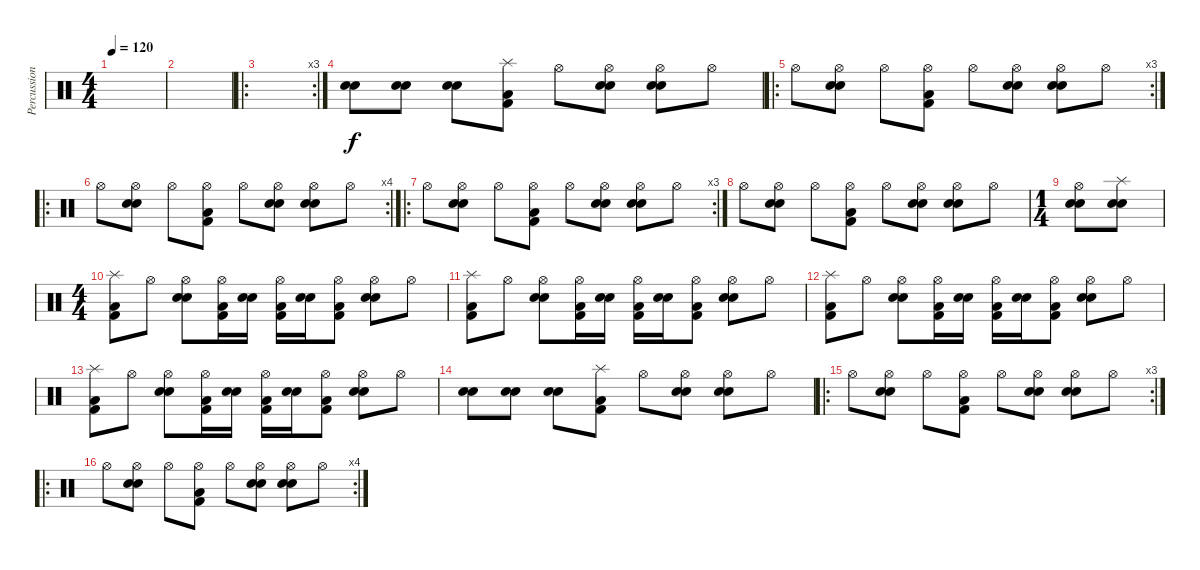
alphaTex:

\track ("Percussions" "Percussion") {instrument percussion}
\staff {score}
\articulation defaults
\ts (4 4)
\tempo 120
\clef neutral
\ks c
|
|
\ro
\rc 3
|
("Snare (hit) 2" "Electric Snare (hit)").8 ("Snare (hit) 2" "Electric Snare (hit)").8 ("Snare (hit) 2" "Electric Snare (hit)").8 ("Splash (hit)" "Kick (hit) 2" "Low Floor Tom (hit)").8 "Hi-Hat (open)".8 ("Hi-Hat (open)" "Snare (hit) 2" "Electric Snare (hit)").8 ("Hi-Hat (open)" "Snare (hit) 2" "Electric Snare (hit)").8 "Hi-Hat (open)".8 |
\ro
\rc 3 "Hi-Hat (open)".8
("Hi-Hat (open)" "Snare (hit) 2" "Electric Snare (hit)").8 "Hi-Hat (open)".8 ("Hi-Hat (open)" "Kick (hit) 2" "Low Floor Tom (hit)").8 "Hi-Hat (open)".8 ("Hi-Hat (open)" "Snare (hit) 2" "Electric Snare (hit)").8 ("Hi-Hat (open)" "Snare (hit) 2" "Electric Snare (hit)").8 "Hi-Hat (open)".8 |
\ro
\rc 4 "Hi-Hat (open)".8
("Hi-Hat (open)" "Snare (hit) 2" "Electric Snare (hit)").8 "Hi-Hat (open)".8 ("Hi-Hat (open)" "Kick (hit) 2" "Low Floor Tom (hit)").8 "Hi-Hat (open)".8 ("Hi-Hat (open)" "Snare (hit) 2" "Electric Snare (hit)").8 ("Hi-Hat (open)" "Snare (hit) 2" "Electric Snare (hit)").8 "Hi-Hat (open)".8 |
\ro
\rc 3 "Hi-Hat (open)".8
("Hi-Hat (open)" "Snare (hit) 2" "Electric Snare (hit)").8 "Hi-Hat (open)".8 ("Hi-Hat (open)" "Kick (hit) 2" "Low Floor Tom (hit)").8 "Hi-Hat (open)".8 ("Hi-Hat (open)" "Snare (hit) 2" "Electric Snare (hit)").8 ("Hi-Hat (open)" "Snare (hit) 2" "Electric Snare (hit)").8 "Hi-Hat (open)".8 |
"Hi-Hat (open)".8 ("Hi-Hat (open)" "Snare (hit) 2" "Electric Snare (hit)").8 "Hi-Hat (open)".8 ("Hi-Hat (open)" "Kick (hit) 2" "Low Floor Tom (hit)").8 "Hi-Hat (open)".8 ("Hi-Hat (open)" "Snare (hit) 2" "Electric Snare (hit)").8 ("Hi-Hat (open)" "Snare (hit) 2" "Electric Snare (hit)").8 "Hi-Hat (open)".8 |
\ts (1 4)
("Hi-Hat (open)" "Snare (hit) 2" "Electric Snare (hit)").8 ("Splash (hit)" "Snare (hit) 2" "Electric Snare (hit)").8 |
\ts (4 4)
("Splash (hit)" "Kick (hit) 2" "Low Floor Tom (hit)").8 "Hi-Hat (open)".8 ("Hi-Hat (open)" "Snare (hit) 2" "Electric Snare (hit)").8 ("Hi-Hat (open)" "Kick (hit) 2" "Low Floor Tom (hit)").16 ("Snare (hit) 2" "Electric Snare (hit)").16 ("Hi-Hat (open)" "Kick (hit) 2" "Low Floor Tom (hit)").16 ("Snare (hit) 2" "Electric Snare (hit)").16 ("Hi-Hat (open)" "Kick (hit) 2" "Low Floor Tom (hit)").8 ("Hi-Hat (open)" "Snare (hit) 2" "Electric Snare (hit)").8 "Hi-Hat (open)".8 |
("Splash (hit)" "Kick (hit) 2" "Low Floor Tom (hit)").8 "Hi-Hat (open)".8 ("Hi-Hat (open)" "Snare (hit) 2" "Electric Snare (hit)").8 ("Hi-Hat (open)" "Kick (hit) 2" "Low Floor Tom (hit)").16 ("Snare (hit) 2" "Electric Snare (hit)").16 ("Hi-Hat (open)" "Kick (hit) 2" "Low Floor Tom (hit)").16 ("Snare (hit) 2" "Electric Snare (hit)").16 ("Hi-Hat (open)" "Kick (hit) 2" "Low Floor Tom (hit)").8 ("Hi-Hat (open)" "Snare (hit) 2" "Electric Snare (hit)").8 "Hi-Hat (open)".8 |
("Splash (hit)" "Kick (hit) 2" "Low Floor Tom (hit)").8 "Hi-Hat (open)".8 ("Hi-Hat (open)" "Snare (hit) 2" "Electric Snare (hit)").8 ("Hi-Hat (open)" "Kick (hit) 2" "Low Floor Tom (hit)").16 ("Snare (hit) 2" "Electric Snare (hit)").16 ("Hi-Hat (open)" "Kick (hit) 2" "Low Floor Tom (hit)").16 ("Snare (hit) 2" "Electric Snare (hit)").16 ("Hi-Hat (open)" "Kick (hit) 2" "Low Floor Tom (hit)").8 ("Hi-Hat (open)" "Snare (hit) 2" "Electric Snare (hit)").8 "Hi-Hat (open)".8 |
("Splash (hit)" "Kick (hit) 2" "Low Floor Tom (hit)").8 "Hi-Hat (open)".8 ("Hi-Hat (open)" "Snare (hit) 2" "Electric Snare (hit)").8 ("Hi-Hat (open)" "Kick (hit) 2" "Low Floor Tom (hit)").16 ("Snare (hit) 2" "Electric Snare (hit)").16 ("Hi-Hat (open)" "Kick (hit) 2" "Low Floor Tom (hit)").16 ("Snare (hit) 2" "Electric Snare (hit)").16 ("Hi-Hat (open)" "Kick (hit) 2" "Low Floor Tom (hit)").8 ("Hi-Hat (open)" "Snare (hit) 2" "Electric Snare (hit)").8 "Hi-Hat (open)".8 |
("Snare (hit) 2" "Electric Snare (hit)").8 ("Snare (hit) 2" "Electric Snare (hit)").8 ("Snare (hit) 2" "Electric Snare (hit)").8 ("Splash (hit)" "Kick (hit) 2" "Low Floor Tom (hit)").8 "Hi-Hat (open)".8 ("Hi-Hat (open)" "Snare (hit) 2" "Electric Snare (hit)").8 ("Hi-Hat (open)" "Snare (hit) 2" "Electric Snare (hit)").8 "Hi-Hat (open)".8 |
\ro
\rc 3 "Hi-Hat (open)".8
("Hi-Hat (open)" "Snare (hit) 2" "Electric Snare (hit)").8 "Hi-Hat (open)".8 ("Hi-Hat (open)" "Kick (hit) 2" "Low Floor Tom (hit)").8 "Hi-Hat (open)".8 ("Hi-Hat (open)" "Snare (hit) 2" "Electric Snare (hit)").8 ("Hi-Hat (open)" "Snare (hit) 2" "Electric Snare (hit)").8 "Hi-Hat (open)".8 |
\ro
\rc 4 "Hi-Hat (open)".8
("Hi-Hat (open)" "Snare (hit) 2" "Electric Snare (hit)").8 "Hi-Hat (open)".8 ("Hi-Hat (open)" "Kick (hit) 2" "Low Floor Tom (hit)").8 "Hi-Hat (open)".8 ("Hi-Hat (open)" "Snare (hit) 2" "Electric Snare (hit)").8 ("Hi-Hat (open)" "Snare (hit) 2" "Electric Snare (hit)").8 "Hi-Hat (open)".8
